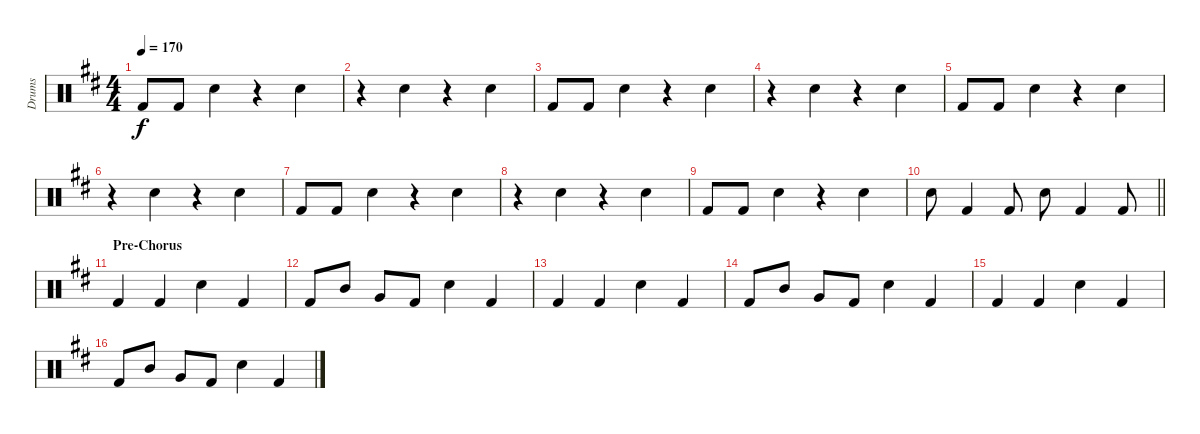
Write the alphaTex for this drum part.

\track ("Drums" "Drums") {instrument percussion}
\staff {score}
\articulation defaults
\ts (4 4)
\tempo 170
\clef neutral
\ks d "Kick (hit) 2".8{dy f} "Kick (hit) 2".8 "Electric Snare (hit)".4
r.4 "Electric Snare (hit)".4 |
r.4 "Electric Snare (hit)".4 r.4 "Electric Snare (hit)".4 |
"Kick (hit) 2".8 "Kick (hit) 2".8 "Electric Snare (hit)".4 r.4 "Electric Snare (hit)".4 |
r.4 "Electric Snare (hit)".4 r.4 "Electric Snare (hit)".4 |
"Kick (hit) 2".8 "Kick (hit) 2".8 "Electric Snare (hit)".4 r.4 "Electric Snare (hit)".4 |
r.4 "Electric Snare (hit)".4 r.4 "Electric Snare (hit)".4 |
"Kick (hit) 2".8 "Kick (hit) 2".8 "Electric Snare (hit)".4 r.4 "Electric Snare (hit)".4 |
r.4 "Electric Snare (hit)".4 r.4 "Electric Snare (hit)".4 |
"Kick (hit) 2".8 "Kick (hit) 2".8 "Electric Snare (hit)".4 r.4 "Electric Snare (hit)".4 |
\barLineRight lightlight "Electric Snare (hit)".8 "Kick (hit) 2".4 "Kick (hit) 2".8 "Electric Snare (hit)".8 "Kick (hit) 2".4 "Kick (hit) 2".8
|
\section ("" "Pre-Chorus")
"Kick (hit) 2".4 "Kick (hit) 2".4 "Snare (hit) 2".4 "Kick (hit) 2".4 |
"Kick (hit) 2".8 "Mid Tom (hit)".8 "Very Low Tom (hit)".8 "Kick (hit) 2".8 "Electric Snare (hit)".4 "Kick (hit) 2".4 |
"Kick (hit) 2".4 "Kick (hit) 2".4 "Snare (hit) 2".4 "Kick (hit) 2".4 |
"Kick (hit) 2".8 "Mid Tom (hit)".8 "Very Low Tom (hit)".8 "Kick (hit) 2".8 "Electric Snare (hit)".4 "Kick (hit) 2".4 |
"Kick (hit) 2".4 "Kick (hit) 2".4 "Snare (hit) 2".4 "Kick (hit) 2".4 |
"Kick (hit) 2".8 "Mid Tom (hit)".8 "Very Low Tom (hit)".8 "Kick (hit) 2".8 "Electric Snare (hit)".4 "Kick (hit) 2".4
